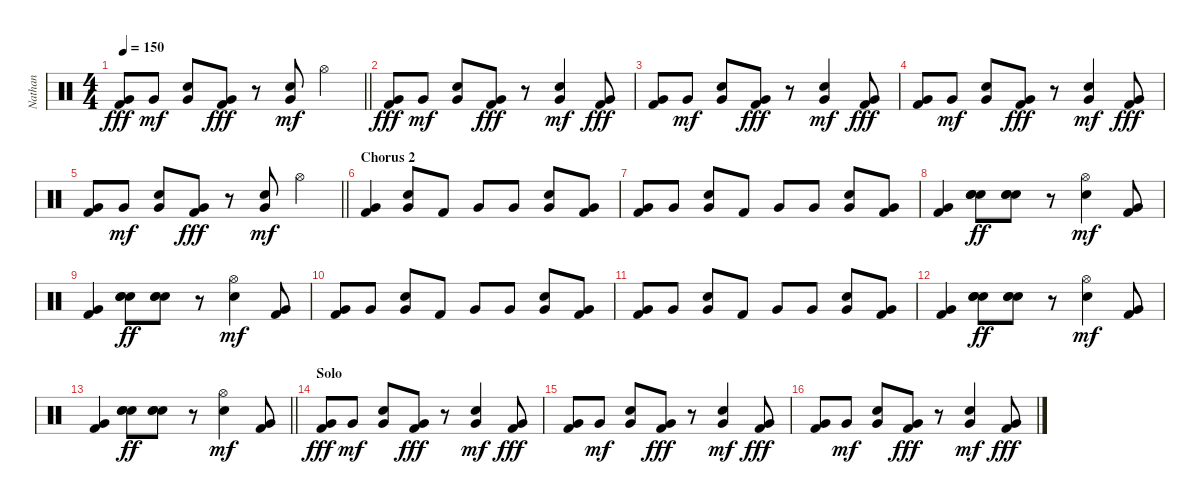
\track ("Nathan" "Nathan") {instrument percussion}
\staff {score}
\articulation defaults
\ts (4 4)
\tempo 150
\clef neutral
\barLineRight lightlight
\ks c
("Very Low Tom (hit)" "Kick (hit) 2").8{dy fff} "Very Low Tom (hit)".8{dy mf} ("Very Low Tom (hit)" "Electric Snare (hit)").8 ("Very Low Tom (hit)" "Kick (hit) 2").8{dy fff} r.8 ("Very Low Tom (hit)" "Electric Snare (hit)").8{dy mf} "Hi-Hat (open)".4 |
("Very Low Tom (hit)" "Kick (hit) 2").8{dy fff} "Very Low Tom (hit)".8{dy mf} ("Very Low Tom (hit)" "Electric Snare (hit)").8 ("Very Low Tom (hit)" "Kick (hit) 2").8{dy fff} r.8 ("Very Low Tom (hit)" "Electric Snare (hit)").4{dy mf} ("Very Low Tom (hit)" "Kick (hit) 2").8{dy fff} |
("Very Low Tom (hit)" "Kick (hit) 2").8 "Very Low Tom (hit)".8{dy mf} ("Very Low Tom (hit)" "Electric Snare (hit)").8 ("Very Low Tom (hit)" "Kick (hit) 2").8{dy fff} r.8 ("Very Low Tom (hit)" "Electric Snare (hit)").4{dy mf} ("Very Low Tom (hit)" "Kick (hit) 2").8{dy fff} |
("Very Low Tom (hit)" "Kick (hit) 2").8 "Very Low Tom (hit)".8{dy mf} ("Very Low Tom (hit)" "Electric Snare (hit)").8 ("Very Low Tom (hit)" "Kick (hit) 2").8{dy fff} r.8 ("Very Low Tom (hit)" "Electric Snare (hit)").4{dy mf} ("Very Low Tom (hit)" "Kick (hit) 2").8{dy fff} |
\barLineRight lightlight
("Very Low Tom (hit)" "Kick (hit) 2").8 "Very Low Tom (hit)".8{dy mf} ("Very Low Tom (hit)" "Electric Snare (hit)").8 ("Very Low Tom (hit)" "Kick (hit) 2").8{dy fff} r.8 ("Very Low Tom (hit)" "Electric Snare (hit)").8{dy mf} "Hi-Hat (open)".4 |
\section ("" "Chorus 2")
("Very Low Tom (hit)" "Kick (hit) 2").4 ("Very Low Tom (hit)" "Electric Snare (hit)").8 "Kick (hit) 2".8 "Very Low Tom (hit)".8 "Very Low Tom (hit)".8 ("Very Low Tom (hit)" "Electric Snare (hit)").8 ("Very Low Tom (hit)" "Kick (hit) 2").8 |
("Very Low Tom (hit)" "Kick (hit) 2").8 "Very Low Tom (hit)".8 ("Very Low Tom (hit)" "Electric Snare (hit)").8 "Kick (hit) 2".8 "Very Low Tom (hit)".8 "Very Low Tom (hit)".8 ("Very Low Tom (hit)" "Electric Snare (hit)").8 ("Very Low Tom (hit)" "Kick (hit) 2").8 |
("Very Low Tom (hit)" "Kick (hit) 2").4 ("Electric Snare (hit)" "Hand Clap (hit)" "Hand Clap (hit)").8{dy ff} ("Electric Snare (hit)" "Hand Clap (hit)" "Hand Clap (hit)").8 r.8 ("Electric Snare (hit)" "Hi-Hat (open)").4{dy mf} ("Very Low Tom (hit)" "Kick (hit) 2").8 |
("Very Low Tom (hit)" "Kick (hit) 2").4 ("Electric Snare (hit)" "Hand Clap (hit)" "Hand Clap (hit)").8{dy ff} ("Electric Snare (hit)" "Hand Clap (hit)" "Hand Clap (hit)").8 r.8 ("Electric Snare (hit)" "Hi-Hat (open)").4{dy mf} ("Very Low Tom (hit)" "Kick (hit) 2").8 |
("Very Low Tom (hit)" "Kick (hit) 2").8 "Very Low Tom (hit)".8 ("Very Low Tom (hit)" "Electric Snare (hit)").8 "Kick (hit) 2".8 "Very Low Tom (hit)".8 "Very Low Tom (hit)".8 ("Very Low Tom (hit)" "Electric Snare (hit)").8 ("Very Low Tom (hit)" "Kick (hit) 2").8 |
("Very Low Tom (hit)" "Kick (hit) 2").8 "Very Low Tom (hit)".8 ("Very Low Tom (hit)" "Electric Snare (hit)").8 "Kick (hit) 2".8 "Very Low Tom (hit)".8 "Very Low Tom (hit)".8 ("Very Low Tom (hit)" "Electric Snare (hit)").8 ("Very Low Tom (hit)" "Kick (hit) 2").8 |
("Very Low Tom (hit)" "Kick (hit) 2").4 ("Electric Snare (hit)" "Hand Clap (hit)" "Hand Clap (hit)").8{dy ff} ("Electric Snare (hit)" "Hand Clap (hit)" "Hand Clap (hit)").8 r.8 ("Electric Snare (hit)" "Hi-Hat (open)").4{dy mf} ("Very Low Tom (hit)" "Kick (hit) 2").8 |
\barLineRight lightlight
("Very Low Tom (hit)" "Kick (hit) 2").4 ("Electric Snare (hit)" "Hand Clap (hit)" "Hand Clap (hit)").8{dy ff} ("Electric Snare (hit)" "Hand Clap (hit)" "Hand Clap (hit)").8 r.8 ("Electric Snare (hit)" "Hi-Hat (open)").4{dy mf} ("Very Low Tom (hit)" "Kick (hit) 2").8 |
\section ("" "Solo")
("Very Low Tom (hit)" "Kick (hit) 2").8{dy fff} "Very Low Tom (hit)".8{dy mf} ("Very Low Tom (hit)" "Electric Snare (hit)").8 ("Very Low Tom (hit)" "Kick (hit) 2").8{dy fff} r.8 ("Very Low Tom (hit)" "Electric Snare (hit)").4{dy mf} ("Very Low Tom (hit)" "Kick (hit) 2").8{dy fff} |
("Very Low Tom (hit)" "Kick (hit) 2").8 "Very Low Tom (hit)".8{dy mf} ("Very Low Tom (hit)" "Electric Snare (hit)").8 ("Very Low Tom (hit)" "Kick (hit) 2").8{dy fff} r.8 ("Very Low Tom (hit)" "Electric Snare (hit)").4{dy mf} ("Very Low Tom (hit)" "Kick (hit) 2").8{dy fff} |
("Very Low Tom (hit)" "Kick (hit) 2").8 "Very Low Tom (hit)".8{dy mf} ("Very Low Tom (hit)" "Electric Snare (hit)").8 ("Very Low Tom (hit)" "Kick (hit) 2").8{dy fff} r.8 ("Very Low Tom (hit)" "Electric Snare (hit)").4{dy mf} ("Very Low Tom (hit)" "Kick (hit) 2").8{dy fff}
